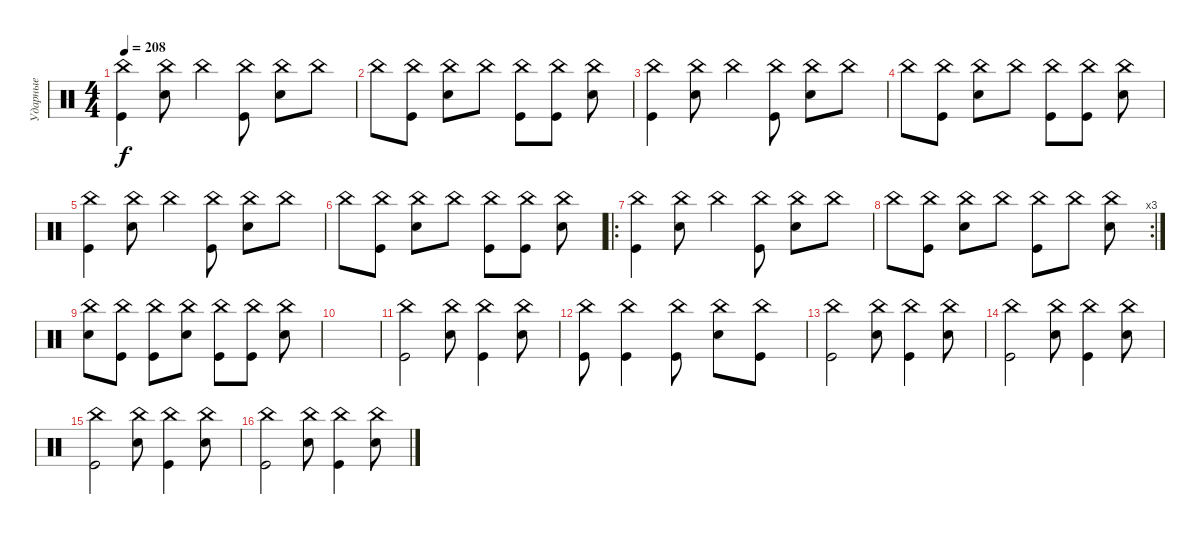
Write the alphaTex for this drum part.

\track ("Ударные" "Ударные") {instrument percussion}
\staff {score}
\articulation defaults
\ts (4 4)
\tempo 208
\clef neutral
\ks c
("Kick (hit)" "China (hit)").4{dy f} ("Snare (hit) 2" "China (hit)").8 "China (hit)".4 ("Kick (hit)" "China (hit)").8 ("Snare (hit) 2" "China (hit)").8 "China (hit)".8 |
"China (hit)".8 ("Kick (hit)" "China (hit)").8 ("Snare (hit) 2" "China (hit)").8 "China (hit)".8 ("Kick (hit)" "China (hit)").8 ("Kick (hit)" "China (hit)").8 ("Snare (hit) 2" "China (hit)").8 |
("Kick (hit)" "China (hit)").4 ("Snare (hit) 2" "China (hit)").8 "China (hit)".4 ("Kick (hit)" "China (hit)").8 ("Snare (hit) 2" "China (hit)").8 "China (hit)".8 |
"China (hit)".8 ("Kick (hit)" "China (hit)").8 ("Snare (hit) 2" "China (hit)").8 "China (hit)".8 ("Kick (hit)" "China (hit)").8 ("Kick (hit)" "China (hit)").8 ("Snare (hit) 2" "China (hit)").8 |
("Kick (hit)" "China (hit)").4 ("Snare (hit) 2" "China (hit)").8 "China (hit)".4 ("Kick (hit)" "China (hit)").8 ("Snare (hit) 2" "China (hit)").8 "China (hit)".8 |
"China (hit)".8 ("Kick (hit)" "China (hit)").8 ("Snare (hit) 2" "China (hit)").8 "China (hit)".8 ("Kick (hit)" "China (hit)").8 ("Kick (hit)" "China (hit)").8 ("Snare (hit) 2" "China (hit)").8 |
\ro
("Kick (hit)" "China (hit)").4 ("Snare (hit) 2" "China (hit)").8 "China (hit)".4 ("Kick (hit)" "China (hit)").8 ("Snare (hit) 2" "China (hit)").8 "China (hit)".8 |
\rc 3 "China (hit)".8
("Kick (hit)" "China (hit)").8 ("Snare (hit) 2" "China (hit)").8 "China (hit)".8 ("Kick (hit)" "China (hit)").8 "China (hit)".8 ("Snare (hit) 2" "China (hit)").8 |
("Snare (hit) 2" "China (hit)").8 ("Kick (hit)" "China (hit)").8 ("Kick (hit)" "China (hit)").8 ("Snare (hit) 2" "China (hit)").8 ("Kick (hit)" "China (hit)").8 ("Kick (hit)" "China (hit)").8 ("Snare (hit) 2" "China (hit)").8 |
|
("Kick (hit)" "China (hit)").2 ("Snare (hit) 2" "China (hit)").8 ("Kick (hit)" "China (hit)").4 ("Snare (hit) 2" "China (hit)").8 |
("Kick (hit)" "China (hit)").8 ("Kick (hit)" "China (hit)").4 ("Kick (hit)" "China (hit)").8 ("Snare (hit) 2" "China (hit)").8 ("Kick (hit)" "China (hit)").8 |
("Kick (hit)" "China (hit)").2 ("Snare (hit) 2" "China (hit)").8 ("Kick (hit)" "China (hit)").4 ("Snare (hit) 2" "China (hit)").8 |
("Kick (hit)" "China (hit)").2 ("Snare (hit) 2" "China (hit)").8 ("Kick (hit)" "China (hit)").4 ("Snare (hit) 2" "China (hit)").8 |
("Kick (hit)" "China (hit)").2 ("Snare (hit) 2" "China (hit)").8 ("Kick (hit)" "China (hit)").4 ("Snare (hit) 2" "China (hit)").8 |
("Kick (hit)" "China (hit)").2 ("Snare (hit) 2" "China (hit)").8 ("Kick (hit)" "China (hit)").4 ("Snare (hit) 2" "China (hit)").8
